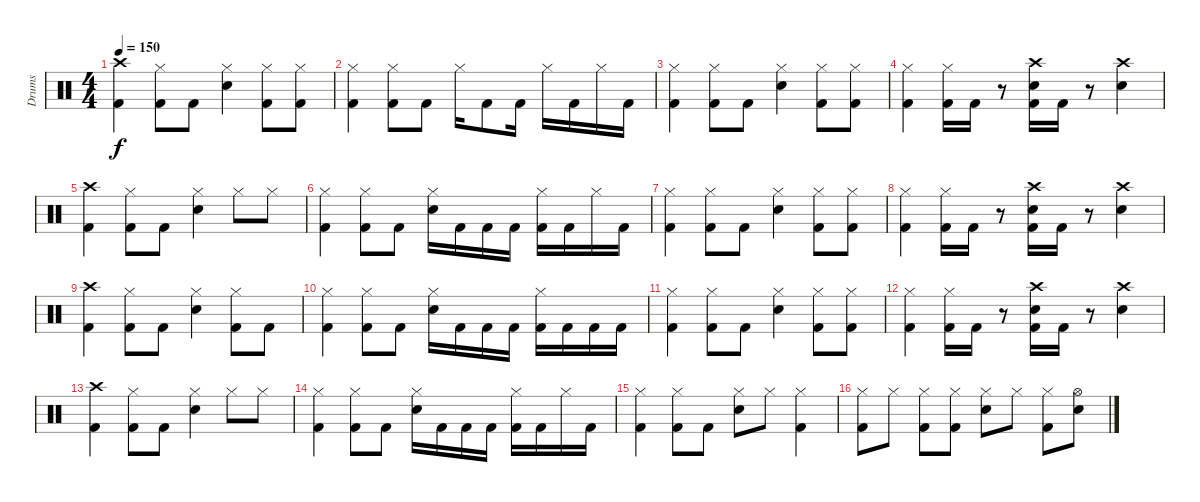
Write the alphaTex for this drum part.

\track ("Drums" "Drums") {instrument percussion}
\staff {score}
\articulation defaults
\ts (4 4)
\tempo 150
\clef neutral
\ks c
("Crash high (hit)" "Kick (hit) 2").4{dy f} ("Hi-Hat (closed)" "Kick (hit) 2").8 "Kick (hit) 2".8 ("Hi-Hat (closed)" "Snare (hit) 2").4 ("Hi-Hat (closed)" "Kick (hit) 2").8 ("Hi-Hat (closed)" "Kick (hit) 2").8 |
("Hi-Hat (closed)" "Kick (hit) 2").4 ("Hi-Hat (closed)" "Kick (hit) 2").8 "Kick (hit) 2".8 "Hi-Hat (closed)".16 "Kick (hit) 2".8 "Kick (hit) 2".16 "Hi-Hat (closed)".16 "Kick (hit) 2".16 "Hi-Hat (closed)".16 "Kick (hit) 2".16 |
("Hi-Hat (closed)" "Kick (hit) 2").4 ("Hi-Hat (closed)" "Kick (hit) 2").8 "Kick (hit) 2".8 ("Hi-Hat (closed)" "Snare (hit) 2").4 ("Hi-Hat (closed)" "Kick (hit) 2").8 ("Hi-Hat (closed)" "Kick (hit) 2").8 |
("Hi-Hat (closed)" "Kick (hit) 2").4 ("Hi-Hat (closed)" "Kick (hit) 2").16 "Kick (hit) 2".16 r.8 ("Crash high (hit)" "Snare (hit) 2" "Kick (hit) 2").16 "Kick (hit) 2".16 r.8 ("Crash high (hit)" "Snare (hit) 2").4 |
("Crash high (hit)" "Kick (hit) 2").4 ("Hi-Hat (closed)" "Kick (hit) 2").8 "Kick (hit) 2".8 ("Hi-Hat (closed)" "Snare (hit) 2").4 "Hi-Hat (closed)".8 "Hi-Hat (closed)".8 |
("Hi-Hat (closed)" "Kick (hit) 2").4 ("Hi-Hat (closed)" "Kick (hit) 2").8 "Kick (hit) 2".8 ("Hi-Hat (closed)" "Snare (hit) 2").16 "Kick (hit) 2".16 "Kick (hit) 2".16 "Kick (hit) 2".16 ("Hi-Hat (closed)" "Kick (hit) 2").16 "Kick (hit) 2".16 "Hi-Hat (closed)".16 "Kick (hit) 2".16 |
("Hi-Hat (closed)" "Kick (hit) 2").4 ("Hi-Hat (closed)" "Kick (hit) 2").8 "Kick (hit) 2".8 ("Hi-Hat (closed)" "Snare (hit) 2").4 ("Hi-Hat (closed)" "Kick (hit) 2").8 ("Hi-Hat (closed)" "Kick (hit) 2").8 |
("Hi-Hat (closed)" "Kick (hit) 2").4 ("Hi-Hat (closed)" "Kick (hit) 2").16 "Kick (hit) 2".16 r.8 ("Crash high (hit)" "Snare (hit) 2" "Kick (hit) 2").16 "Kick (hit) 2".16 r.8 ("Crash high (hit)" "Snare (hit) 2").4 |
("Crash high (hit)" "Kick (hit) 2").4 ("Hi-Hat (closed)" "Kick (hit) 2").8 "Kick (hit) 2".8 ("Hi-Hat (closed)" "Snare (hit) 2").4 ("Hi-Hat (closed)" "Kick (hit) 2").8 "Kick (hit) 2".8 |
("Hi-Hat (closed)" "Kick (hit) 2").4 ("Hi-Hat (closed)" "Kick (hit) 2").8 "Kick (hit) 2".8 ("Hi-Hat (closed)" "Snare (hit) 2").16 "Kick (hit) 2".16 "Kick (hit) 2".16 "Kick (hit) 2".16 ("Hi-Hat (closed)" "Kick (hit) 2").16 "Kick (hit) 2".16 "Kick (hit) 2".16 "Kick (hit) 2".16 |
("Hi-Hat (closed)" "Kick (hit) 2").4 ("Hi-Hat (closed)" "Kick (hit) 2").8 "Kick (hit) 2".8 ("Hi-Hat (closed)" "Snare (hit) 2").4 ("Hi-Hat (closed)" "Kick (hit) 2").8 ("Hi-Hat (closed)" "Kick (hit) 2").8 |
("Hi-Hat (closed)" "Kick (hit) 2").4 ("Hi-Hat (closed)" "Kick (hit) 2").16 "Kick (hit) 2".16 r.8 ("Crash high (hit)" "Snare (hit) 2" "Kick (hit) 2").16 "Kick (hit) 2".16 r.8 ("Crash high (hit)" "Snare (hit) 2").4 |
("Crash high (hit)" "Kick (hit) 2").4 ("Hi-Hat (closed)" "Kick (hit) 2").8 "Kick (hit) 2".8 ("Hi-Hat (closed)" "Snare (hit) 2").4 "Hi-Hat (closed)".8 "Hi-Hat (closed)".8 |
("Hi-Hat (closed)" "Kick (hit) 2").4 ("Hi-Hat (closed)" "Kick (hit) 2").8 "Kick (hit) 2".8 ("Hi-Hat (closed)" "Snare (hit) 2").16 "Kick (hit) 2".16 "Kick (hit) 2".16 "Kick (hit) 2".16 ("Hi-Hat (closed)" "Kick (hit) 2").16 "Kick (hit) 2".16 "Hi-Hat (closed)".16 "Kick (hit) 2".16 |
("Hi-Hat (closed)" "Kick (hit) 2").4 ("Hi-Hat (closed)" "Kick (hit) 2").8 "Kick (hit) 2".8 ("Hi-Hat (closed)" "Snare (hit) 2").8 "Hi-Hat (closed)".8 ("Hi-Hat (closed)" "Kick (hit) 2").4 |
("Kick (hit) 2" "Hi-Hat (closed)").8 "Hi-Hat (closed)".8 ("Kick (hit) 2" "Hi-Hat (closed)").8 ("Kick (hit) 2" "Hi-Hat (closed)").8 ("Hi-Hat (closed)" "Snare (hit) 2").8 "Hi-Hat (closed)".8 ("Hi-Hat (closed)" "Kick (hit) 2").8 ("Hi-Hat (open)" "Snare (hit) 2").8
